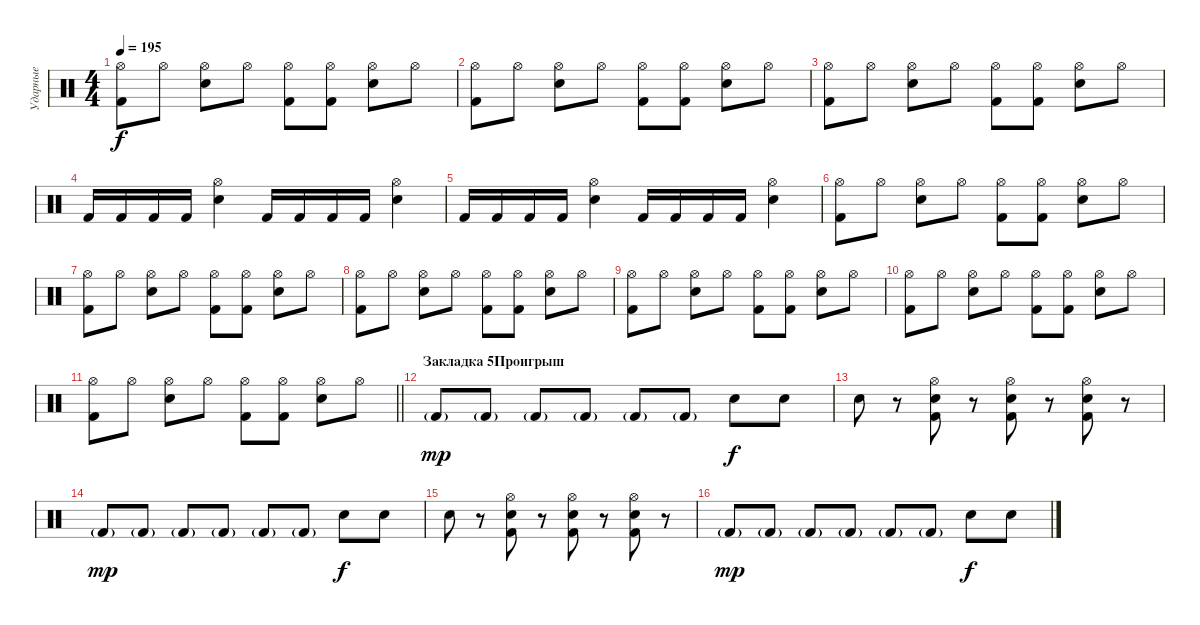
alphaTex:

\track ("Ударные" "Ударные") {instrument percussion}
\staff {score}
\articulation defaults
\ts (4 4)
\tempo 195
\clef neutral
\ks c
("Hi-Hat (open)" "Kick (hit) 2").8{dy f} "Hi-Hat (open)".8 ("Hi-Hat (open)" "Snare (hit) 2").8 "Hi-Hat (open)".8 ("Hi-Hat (open)" "Kick (hit) 2").8 ("Hi-Hat (open)" "Kick (hit) 2").8 ("Hi-Hat (open)" "Snare (hit) 2").8 "Hi-Hat (open)".8 |
("Hi-Hat (open)" "Kick (hit) 2").8 "Hi-Hat (open)".8 ("Hi-Hat (open)" "Snare (hit) 2").8 "Hi-Hat (open)".8 ("Hi-Hat (open)" "Kick (hit) 2").8 ("Hi-Hat (open)" "Kick (hit) 2").8 ("Hi-Hat (open)" "Snare (hit) 2").8 "Hi-Hat (open)".8 |
("Hi-Hat (open)" "Kick (hit) 2").8 "Hi-Hat (open)".8 ("Hi-Hat (open)" "Snare (hit) 2").8 "Hi-Hat (open)".8 ("Hi-Hat (open)" "Kick (hit) 2").8 ("Hi-Hat (open)" "Kick (hit) 2").8 ("Hi-Hat (open)" "Snare (hit) 2").8 "Hi-Hat (open)".8 |
"Kick (hit) 2".16 "Kick (hit) 2".16 "Kick (hit) 2".16 "Kick (hit) 2".16 ("Snare (hit) 2" "Hi-Hat (open)").4 "Kick (hit) 2".16 "Kick (hit) 2".16 "Kick (hit) 2".16 "Kick (hit) 2".16 ("Snare (hit) 2" "Hi-Hat (open)").4 |
"Kick (hit) 2".16 "Kick (hit) 2".16 "Kick (hit) 2".16 "Kick (hit) 2".16 ("Snare (hit) 2" "Hi-Hat (open)").4 "Kick (hit) 2".16 "Kick (hit) 2".16 "Kick (hit) 2".16 "Kick (hit) 2".16 ("Snare (hit) 2" "Hi-Hat (open)").4 |
("Hi-Hat (open)" "Kick (hit) 2").8 "Hi-Hat (open)".8 ("Hi-Hat (open)" "Snare (hit) 2").8 "Hi-Hat (open)".8 ("Hi-Hat (open)" "Kick (hit) 2").8 ("Hi-Hat (open)" "Kick (hit) 2").8 ("Hi-Hat (open)" "Snare (hit) 2").8 "Hi-Hat (open)".8 |
("Hi-Hat (open)" "Kick (hit) 2").8 "Hi-Hat (open)".8 ("Hi-Hat (open)" "Snare (hit) 2").8 "Hi-Hat (open)".8 ("Hi-Hat (open)" "Kick (hit) 2").8 ("Hi-Hat (open)" "Kick (hit) 2").8 ("Hi-Hat (open)" "Snare (hit) 2").8 "Hi-Hat (open)".8 |
("Hi-Hat (open)" "Kick (hit) 2").8 "Hi-Hat (open)".8 ("Hi-Hat (open)" "Snare (hit) 2").8 "Hi-Hat (open)".8 ("Hi-Hat (open)" "Kick (hit) 2").8 ("Hi-Hat (open)" "Kick (hit) 2").8 ("Hi-Hat (open)" "Snare (hit) 2").8 "Hi-Hat (open)".8 |
("Hi-Hat (open)" "Kick (hit) 2").8 "Hi-Hat (open)".8 ("Hi-Hat (open)" "Snare (hit) 2").8 "Hi-Hat (open)".8 ("Hi-Hat (open)" "Kick (hit) 2").8 ("Hi-Hat (open)" "Kick (hit) 2").8 ("Hi-Hat (open)" "Snare (hit) 2").8 "Hi-Hat (open)".8 |
("Hi-Hat (open)" "Kick (hit) 2").8 "Hi-Hat (open)".8 ("Hi-Hat (open)" "Snare (hit) 2").8 "Hi-Hat (open)".8 ("Hi-Hat (open)" "Kick (hit) 2").8 ("Hi-Hat (open)" "Kick (hit) 2").8 ("Hi-Hat (open)" "Snare (hit) 2").8 "Hi-Hat (open)".8 |
\barLineRight lightlight
("Hi-Hat (open)" "Kick (hit) 2").8 "Hi-Hat (open)".8 ("Hi-Hat (open)" "Snare (hit) 2").8 "Hi-Hat (open)".8 ("Hi-Hat (open)" "Kick (hit) 2").8 ("Hi-Hat (open)" "Kick (hit) 2").8 ("Hi-Hat (open)" "Snare (hit) 2").8 "Hi-Hat (open)".8 |
\section ("" "Закладка 5Проигрыш")
"Kick (hit) 2"{g}.8{dy mp} "Kick (hit) 2"{g}.8 "Kick (hit) 2"{g}.8 "Kick (hit) 2"{g}.8 "Kick (hit) 2"{g}.8 "Kick (hit) 2"{g}.8 "Snare (hit) 2".8{dy f} "Snare (hit) 2".8 |
"Snare (hit) 2".8 r.8 ("Hi-Hat (open)" "Kick (hit) 2" "Snare (hit) 2").8 r.8 ("Hi-Hat (open)" "Kick (hit) 2" "Snare (hit) 2").8 r.8 ("Hi-Hat (open)" "Kick (hit) 2" "Snare (hit) 2").8 r.8 |
"Kick (hit) 2"{g}.8{dy mp} "Kick (hit) 2"{g}.8 "Kick (hit) 2"{g}.8 "Kick (hit) 2"{g}.8 "Kick (hit) 2"{g}.8 "Kick (hit) 2"{g}.8 "Snare (hit) 2".8{dy f} "Snare (hit) 2".8 |
"Snare (hit) 2".8 r.8 ("Hi-Hat (open)" "Kick (hit) 2" "Snare (hit) 2").8 r.8 ("Hi-Hat (open)" "Kick (hit) 2" "Snare (hit) 2").8 r.8 ("Hi-Hat (open)" "Kick (hit) 2" "Snare (hit) 2").8 r.8 |
"Kick (hit) 2"{g}.8{dy mp} "Kick (hit) 2"{g}.8 "Kick (hit) 2"{g}.8 "Kick (hit) 2"{g}.8 "Kick (hit) 2"{g}.8 "Kick (hit) 2"{g}.8 "Snare (hit) 2".8{dy f} "Snare (hit) 2".8
